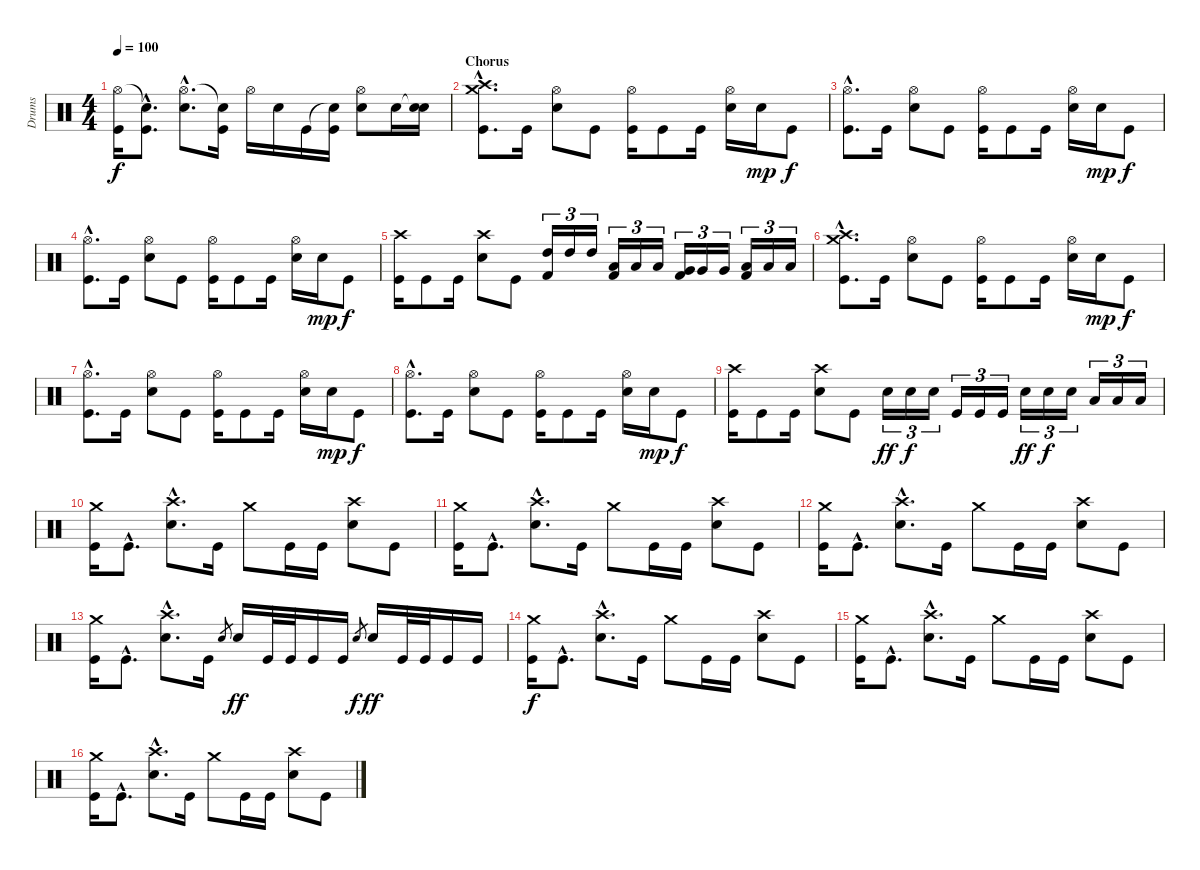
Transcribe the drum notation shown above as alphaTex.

\track ("Drums" "Drums") {instrument percussion}
\staff {score}
\articulation defaults
\ts (4 4)
\tempo 100
\clef neutral
\ks c
("Hi-Hat (open)" "Kick (hit)").16{dy f} ("Snare (hit)"{hac t} "Kick (hit)"{hac}).8{d} ("Hi-Hat (open)"{hac} "Electric Snare (hit)"{hac}).8{d} ("Snare (hit)"{t} "Kick (hit)").16 "Hi-Hat (open)".16 "Electric Snare (hit)".16 "Kick (hit)".16 ("Snare (hit)"{t} "Kick (hit)").16 ("Hi-Hat (open)" "Electric Snare (hit)").8 "Electric Snare (hit)".16 ("Snare (hit)"{t} "Electric Snare (hit)").16 |
\section ("" "Chorus")
("Crash medium (hit)"{hac} "Crash high (hit)"{hac} "Kick (hit)"{hac}).8{d} "Kick (hit)".16 ("Hi-Hat (open)" "Electric Snare (hit)").8 "Kick (hit)".8 ("Hi-Hat (open)" "Kick (hit)").16 "Kick (hit)".8 "Kick (hit)".16 ("Hi-Hat (open)" "Electric Snare (hit)").16 "Electric Snare (hit)".16{dy mp} "Kick (hit)".8{dy f} |
("Hi-Hat (open)"{hac} "Kick (hit)"{hac}).8{d} "Kick (hit)".16 ("Hi-Hat (open)" "Electric Snare (hit)").8 "Kick (hit)".8 ("Hi-Hat (open)" "Kick (hit)").16 "Kick (hit)".8 "Kick (hit)".16 ("Hi-Hat (open)" "Electric Snare (hit)").16 "Electric Snare (hit)".16{dy mp} "Kick (hit)".8{dy f} |
("Hi-Hat (open)"{hac} "Kick (hit)"{hac}).8{d} "Kick (hit)".16 ("Hi-Hat (open)" "Electric Snare (hit)").8 "Kick (hit)".8 ("Hi-Hat (open)" "Kick (hit)").16 "Kick (hit)".8 "Kick (hit)".16 ("Hi-Hat (open)" "Electric Snare (hit)").16 "Electric Snare (hit)".16{dy mp} "Kick (hit)".8{dy f} |
("Crash high (hit)" "Kick (hit)").16 "Kick (hit)".8 "Kick (hit)".16 ("Crash high (hit)" "Electric Snare (hit)").8 "Kick (hit)".8 ("High Tom (hit)" "Kick (hit) 2").16{tu (3 2)} "High Tom (hit)".16{tu (3 2)} "High Tom (hit)".16{tu (3 2)} ("Low Tom (hit)" "Kick (hit) 2").16{tu (3 2)} "Low Tom (hit)".16{tu (3 2)} "Low Tom (hit)".16{tu (3 2)} ("Very Low Tom (hit)" "Kick (hit) 2").16{tu (3 2)} "Very Low Tom (hit)".16{tu (3 2)} "Very Low Tom (hit)".16{tu (3 2)} ("Low Floor Tom (hit)" "Kick (hit) 2").16{tu (3 2)} "Low Floor Tom (hit)".16{tu (3 2)} "Low Floor Tom (hit)".16{tu (3 2)} |
("Crash medium (hit)"{hac} "Crash high (hit)"{hac} "Kick (hit)"{hac}).8{d} "Kick (hit)".16 ("Hi-Hat (open)" "Electric Snare (hit)").8 "Kick (hit)".8 ("Hi-Hat (open)" "Kick (hit)").16 "Kick (hit)".8 "Kick (hit)".16 ("Hi-Hat (open)" "Electric Snare (hit)").16 "Electric Snare (hit)".16{dy mp} "Kick (hit)".8{dy f} |
("Hi-Hat (open)"{hac} "Kick (hit)"{hac}).8{d} "Kick (hit)".16 ("Hi-Hat (open)" "Electric Snare (hit)").8 "Kick (hit)".8 ("Hi-Hat (open)" "Kick (hit)").16 "Kick (hit)".8 "Kick (hit)".16 ("Hi-Hat (open)" "Electric Snare (hit)").16 "Electric Snare (hit)".16{dy mp} "Kick (hit)".8{dy f} |
("Hi-Hat (open)"{hac} "Kick (hit)"{hac}).8{d} "Kick (hit)".16 ("Hi-Hat (open)" "Electric Snare (hit)").8 "Kick (hit)".8 ("Hi-Hat (open)" "Kick (hit)").16 "Kick (hit)".8 "Kick (hit)".16 ("Hi-Hat (open)" "Electric Snare (hit)").16 "Electric Snare (hit)".16{dy mp} "Kick (hit)".8{dy f} |
("Crash high (hit)" "Kick (hit)").16 "Kick (hit)".8 "Kick (hit)".16 ("Crash high (hit)" "Electric Snare (hit)").8 "Kick (hit)".8 "Electric Snare (hit)".16{tu (3 2) dy ff} "Electric Snare (hit)".16{tu (3 2) dy f} "Electric Snare (hit)".16{tu (3 2)} "Kick (hit)".16{tu (3 2)} "Kick (hit)".16{tu (3 2)} "Kick (hit)".16{tu (3 2)} "Electric Snare (hit)".16{tu (3 2) dy ff} "Electric Snare (hit)".16{tu (3 2) dy f} "Electric Snare (hit)".16{tu (3 2)} "Low Tom (hit)".16{tu (3 2)} "Low Tom (hit)".16{tu (3 2)} "Low Tom (hit)".16{tu (3 2)} |
("Crash medium (hit)" "Kick (hit)").16 "Kick (hit)"{hac}.8{d} ("Crash high (hit)"{hac} "Electric Snare (hit)"{hac}).8{d} "Kick (hit)".16 "Crash medium (hit)".8 "Kick (hit)".16 "Kick (hit)".16 ("Crash high (hit)" "Electric Snare (hit)").8 "Kick (hit)".8 |
("Crash medium (hit)" "Kick (hit)").16 "Kick (hit)"{hac}.8{d} ("Crash high (hit)"{hac} "Electric Snare (hit)"{hac}).8{d} "Kick (hit)".16 "Crash medium (hit)".8 "Kick (hit)".16 "Kick (hit)".16 ("Crash high (hit)" "Electric Snare (hit)").8 "Kick (hit)".8 |
("Crash medium (hit)" "Kick (hit)").16 "Kick (hit)"{hac}.8{d} ("Crash high (hit)"{hac} "Electric Snare (hit)"{hac}).8{d} "Kick (hit)".16 "Crash medium (hit)".8 "Kick (hit)".16 "Kick (hit)".16 ("Crash high (hit)" "Electric Snare (hit)").8 "Kick (hit)".8 |
("Crash medium (hit)" "Kick (hit)").16 "Kick (hit)"{hac}.8{d} ("Crash high (hit)"{hac} "Electric Snare (hit)"{hac}).8{d} "Kick (hit)".16 "Electric Snare (hit)".8{gr} "Electric Snare (hit)".16{dy ff} "Kick (hit)".32 "Kick (hit)".32 "Kick (hit)".16 "Kick (hit)".16 "Electric Snare (hit)".8{gr dy f} "Electric Snare (hit)".16{dy ff} "Kick (hit)".32 "Kick (hit)".32 "Kick (hit)".16 "Kick (hit)".16 |
("Crash medium (hit)" "Kick (hit)").16{dy f} "Kick (hit)"{hac}.8{d} ("Crash high (hit)"{hac} "Electric Snare (hit)"{hac}).8{d} "Kick (hit)".16 "Crash medium (hit)".8 "Kick (hit)".16 "Kick (hit)".16 ("Crash high (hit)" "Electric Snare (hit)").8 "Kick (hit)".8 |
("Crash medium (hit)" "Kick (hit)").16 "Kick (hit)"{hac}.8{d} ("Crash high (hit)"{hac} "Electric Snare (hit)"{hac}).8{d} "Kick (hit)".16 "Crash medium (hit)".8 "Kick (hit)".16 "Kick (hit)".16 ("Crash high (hit)" "Electric Snare (hit)").8 "Kick (hit)".8 |
("Crash medium (hit)" "Kick (hit)").16 "Kick (hit)"{hac}.8{d} ("Crash high (hit)"{hac} "Electric Snare (hit)"{hac}).8{d} "Kick (hit)".16 "Crash medium (hit)".8 "Kick (hit)".16 "Kick (hit)".16 ("Crash high (hit)" "Electric Snare (hit)").8 "Kick (hit)".8
